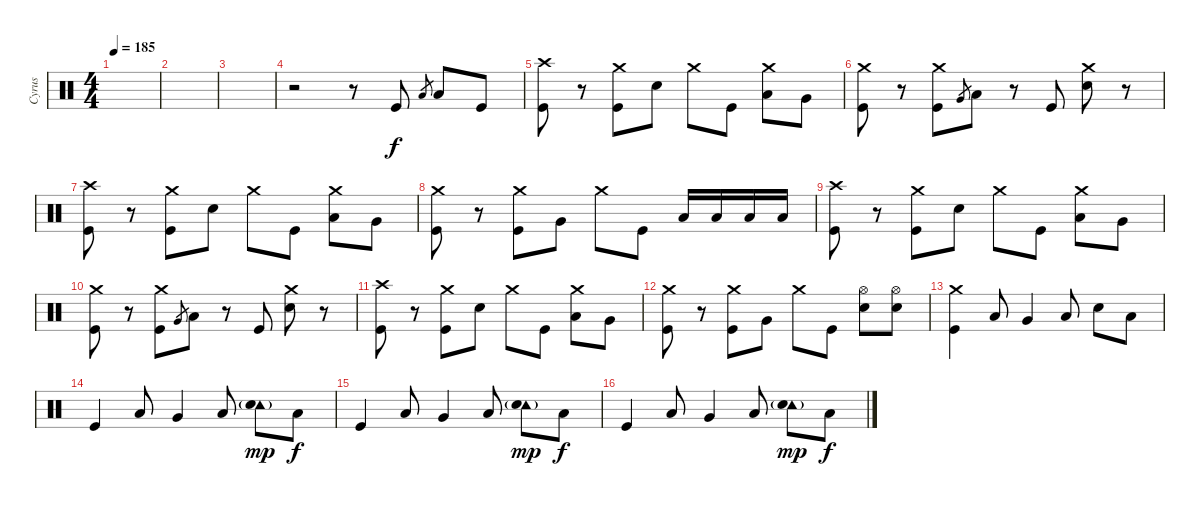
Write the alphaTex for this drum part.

\track ("Cyrus" "Cyrus") {instrument percussion}
\staff {score}
\articulation defaults
\ts (4 4)
\tempo 185
\clef neutral
\ks c
|
|
|
r.2 r.8 "Kick (hit)".8 "Low Tom (hit)".8{gr} "Low Tom (hit)".8 "Kick (hit)".8 |
("Crash high (hit)" "Kick (hit)").8 r.8 ("Crash medium (hit)" "Kick (hit)").8 "Electric Snare (hit)".8 "Crash medium (hit)".8 "Kick (hit)".8 ("Crash medium (hit)" "Low Tom (hit)").8 "Very Low Tom (hit)".8 |
("Crash medium (hit)" "Kick (hit)").8 r.8 ("Crash medium (hit)" "Kick (hit)").8 "Very Low Tom (hit)".8{gr} "Low Tom (hit)".8 r.8 "Kick (hit)".8 ("Crash medium (hit)" "Electric Snare (hit)").8 r.8 |
("Crash high (hit)" "Kick (hit)").8 r.8 ("Crash medium (hit)" "Kick (hit)").8 "Electric Snare (hit)".8 "Crash medium (hit)".8 "Kick (hit)".8 ("Crash medium (hit)" "Low Tom (hit)").8 "Very Low Tom (hit)".8 |
("Crash medium (hit)" "Kick (hit)").8 r.8 ("Crash medium (hit)" "Kick (hit)").8 "Very Low Tom (hit)".8 "Crash medium (hit)".8 "Kick (hit)".8 "Low Floor Tom (hit)".16 "Low Floor Tom (hit)".16 "Low Floor Tom (hit)".16 "Low Floor Tom (hit)".16 |
("Crash high (hit)" "Kick (hit)").8 r.8 ("Crash medium (hit)" "Kick (hit)").8 "Electric Snare (hit)".8 "Crash medium (hit)".8 "Kick (hit)".8 ("Crash medium (hit)" "Low Tom (hit)").8 "Very Low Tom (hit)".8 |
("Crash medium (hit)" "Kick (hit)").8 r.8 ("Crash medium (hit)" "Kick (hit)").8 "Very Low Tom (hit)".8{gr} "Low Tom (hit)".8 r.8 "Kick (hit)".8 ("Crash medium (hit)" "Electric Snare (hit)").8 r.8 |
("Crash high (hit)" "Kick (hit)").8 r.8 ("Crash medium (hit)" "Kick (hit)").8 "Electric Snare (hit)".8 "Crash medium (hit)".8 "Kick (hit)".8 ("Crash medium (hit)" "Low Tom (hit)").8 "Very Low Tom (hit)".8 |
("Crash medium (hit)" "Kick (hit)").8 r.8 ("Crash medium (hit)" "Kick (hit)").8 "Very Low Tom (hit)".8 "Crash medium (hit)".8 "Kick (hit)".8 ("Hi-Hat (open)" "Electric Snare (hit)").8 ("Hi-Hat (open)" "Electric Snare (hit)").8 |
("Crash medium (hit)" "Kick (hit)").4 "Low Tom (hit)".8 "Very Low Tom (hit)".4 "Low Tom (hit)".8 "Electric Snare (hit)".8 "Low Floor Tom (hit)".8 |
"Kick (hit)".4 "Low Tom (hit)".8 "Very Low Tom (hit)".4 "Low Tom (hit)".8 ("Tambourine (hit)"{g} "Electric Snare (hit)").8{dy mp} "Low Floor Tom (hit)".8{dy f} |
"Kick (hit)".4 "Low Tom (hit)".8 "Very Low Tom (hit)".4 "Low Tom (hit)".8 ("Tambourine (hit)"{g} "Electric Snare (hit)").8{dy mp} "Low Floor Tom (hit)".8{dy f} |
"Kick (hit)".4 "Low Tom (hit)".8 "Very Low Tom (hit)".4 "Low Tom (hit)".8 ("Tambourine (hit)"{g} "Electric Snare (hit)").8{dy mp} "Low Floor Tom (hit)".8{dy f}
